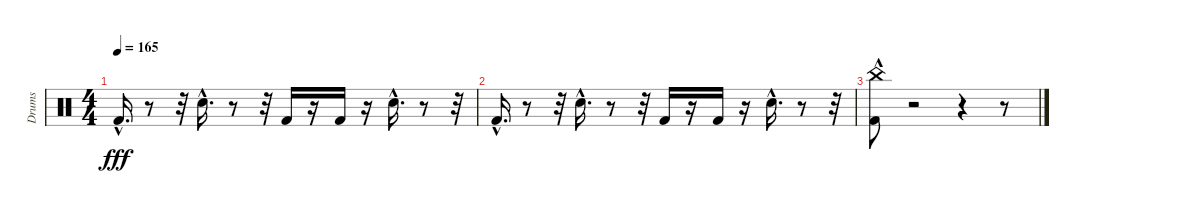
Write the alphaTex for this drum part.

\track ("Drums" "Drums") {instrument percussion}
\staff {score}
\articulation defaults
\ts (4 4)
\tempo 165
\clef neutral
\ks c "Kick (hit) 2"{hac}.16{d dy fff}
r.8 r.32 "Electric Snare (hit)"{hac}.16{d} r.8 r.32 "Kick (hit) 2".16 r.16 "Kick (hit) 2".16 r.16 "Electric Snare (hit)"{hac}.16{d} r.8 r.32 |
"Kick (hit) 2"{hac}.16{d} r.8 r.32 "Electric Snare (hit)"{hac}.16{d} r.8 r.32 "Kick (hit) 2".16 r.16 "Kick (hit) 2".16 r.16 "Electric Snare (hit)"{hac}.16{d} r.8 r.32 |
("Kick (hit) 2" "China (hit)"{hac}).8 r.2 r.4 r.8
